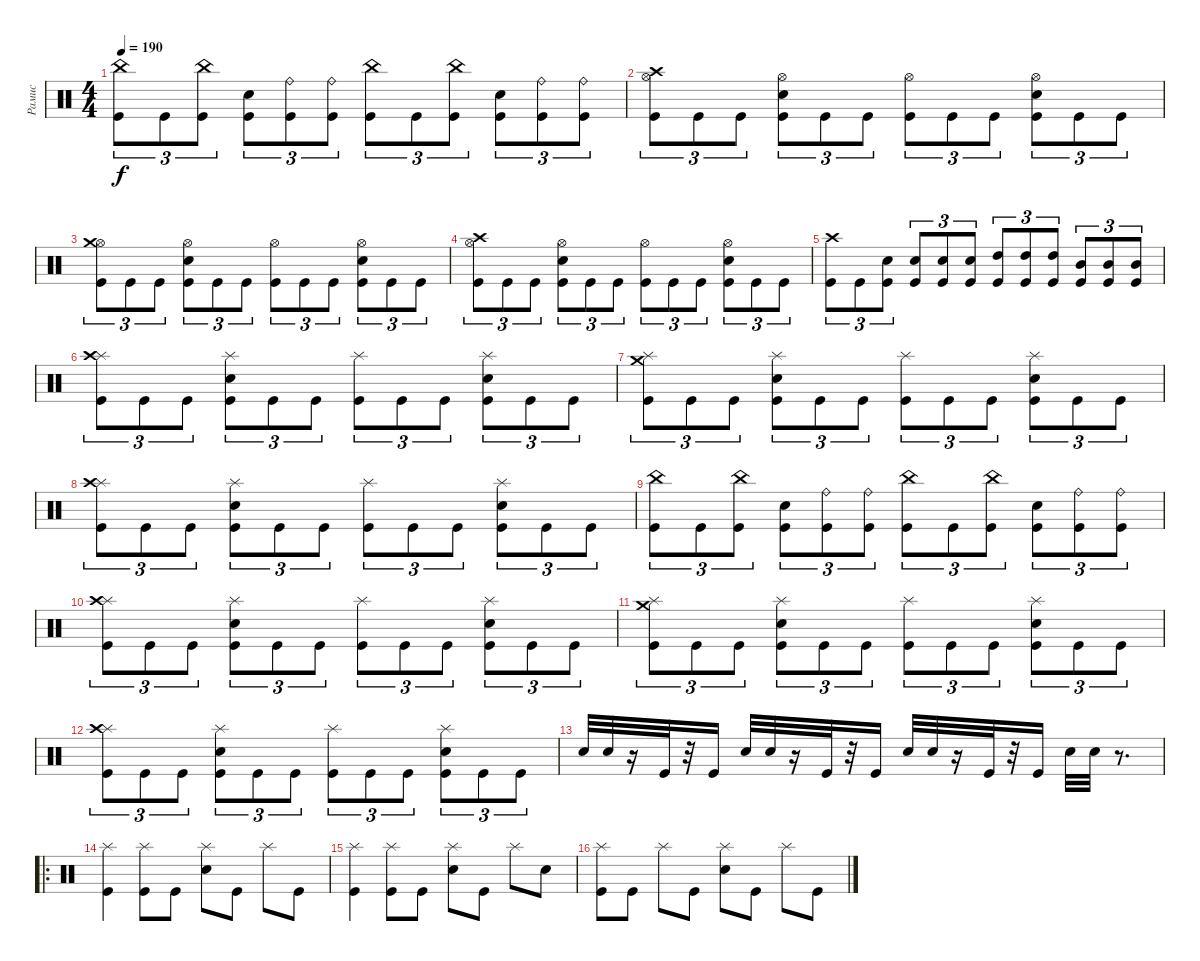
\track ("Рамис" "Рамис") {instrument percussion}
\staff {score}
\articulation defaults
\ts (4 4)
\tempo 190
\clef neutral
\ks c
("China (hit)" "Kick (hit)").8{tu (3 2) dy f} "Kick (hit)".8{tu (3 2)} ("China (hit)" "Kick (hit)").8{tu (3 2)} ("Electric Snare (hit)" "Kick (hit)").8{tu (3 2)} ("Ride (bell)" "Kick (hit)").8{tu (3 2)} ("Ride (bell)" "Kick (hit)").8{tu (3 2)} ("China (hit)" "Kick (hit)").8{tu (3 2)} "Kick (hit)".8{tu (3 2)} ("China (hit)" "Kick (hit)").8{tu (3 2)} ("Electric Snare (hit)" "Kick (hit)").8{tu (3 2)} ("Ride (bell)" "Kick (hit)").8{tu (3 2)} ("Ride (bell)" "Kick (hit)").8{tu (3 2)} |
("Hi-Hat (open)" "Crash high (hit)" "Kick (hit)").8{tu (3 2)} "Kick (hit)".8{tu (3 2)} "Kick (hit)".8{tu (3 2)} ("Hi-Hat (open)" "Electric Snare (hit)" "Kick (hit)").8{tu (3 2)} "Kick (hit)".8{tu (3 2)} "Kick (hit)".8{tu (3 2)} ("Hi-Hat (open)" "Kick (hit)").8{tu (3 2)} "Kick (hit)".8{tu (3 2)} "Kick (hit)".8{tu (3 2)} ("Hi-Hat (open)" "Electric Snare (hit)" "Kick (hit)").8{tu (3 2)} "Kick (hit)".8{tu (3 2)} "Kick (hit)".8{tu (3 2)} |
("Hi-Hat (open)" "Crash medium (hit)" "Kick (hit)").8{tu (3 2)} "Kick (hit)".8{tu (3 2)} "Kick (hit)".8{tu (3 2)} ("Hi-Hat (open)" "Electric Snare (hit)" "Kick (hit)").8{tu (3 2)} "Kick (hit)".8{tu (3 2)} "Kick (hit)".8{tu (3 2)} ("Hi-Hat (open)" "Kick (hit)").8{tu (3 2)} "Kick (hit)".8{tu (3 2)} "Kick (hit)".8{tu (3 2)} ("Hi-Hat (open)" "Electric Snare (hit)" "Kick (hit)").8{tu (3 2)} "Kick (hit)".8{tu (3 2)} "Kick (hit)".8{tu (3 2)} |
("Hi-Hat (open)" "Crash high (hit)" "Kick (hit)").8{tu (3 2)} "Kick (hit)".8{tu (3 2)} "Kick (hit)".8{tu (3 2)} ("Hi-Hat (open)" "Electric Snare (hit)" "Kick (hit)").8{tu (3 2)} "Kick (hit)".8{tu (3 2)} "Kick (hit)".8{tu (3 2)} ("Hi-Hat (open)" "Kick (hit)").8{tu (3 2)} "Kick (hit)".8{tu (3 2)} "Kick (hit)".8{tu (3 2)} ("Hi-Hat (open)" "Electric Snare (hit)" "Kick (hit)").8{tu (3 2)} "Kick (hit)".8{tu (3 2)} "Kick (hit)".8{tu (3 2)} |
("Crash high (hit)" "Kick (hit)").8{tu (3 2)} "Kick (hit)".8{tu (3 2)} ("Electric Snare (hit)" "Kick (hit)").8{tu (3 2)} ("Electric Snare (hit)" "Kick (hit)").8{tu (3 2)} ("Electric Snare (hit)" "Kick (hit)").8{tu (3 2)} ("Electric Snare (hit)" "Kick (hit)").8{tu (3 2)} ("High Tom (hit)" "Kick (hit)").8{tu (3 2)} ("High Tom (hit)" "Kick (hit)").8{tu (3 2)} ("High Tom (hit)" "Kick (hit)").8{tu (3 2)} ("Mid Tom (hit)" "Kick (hit)").8{tu (3 2)} ("Mid Tom (hit)" "Kick (hit)").8{tu (3 2)} ("Mid Tom (hit)" "Kick (hit)").8{tu (3 2)} |
("Splash (hit)" "Crash high (hit)" "Kick (hit)").8{tu (3 2)} "Kick (hit)".8{tu (3 2)} "Kick (hit)".8{tu (3 2)} ("Splash (hit)" "Electric Snare (hit)" "Kick (hit)").8{tu (3 2)} "Kick (hit)".8{tu (3 2)} "Kick (hit)".8{tu (3 2)} ("Splash (hit)" "Kick (hit)").8{tu (3 2)} "Kick (hit)".8{tu (3 2)} "Kick (hit)".8{tu (3 2)} ("Splash (hit)" "Electric Snare (hit)" "Kick (hit)").8{tu (3 2)} "Kick (hit)".8{tu (3 2)} "Kick (hit)".8{tu (3 2)} |
("Splash (hit)" "Crash medium (hit)" "Kick (hit)").8{tu (3 2)} "Kick (hit)".8{tu (3 2)} "Kick (hit)".8{tu (3 2)} ("Splash (hit)" "Electric Snare (hit)" "Kick (hit)").8{tu (3 2)} "Kick (hit)".8{tu (3 2)} "Kick (hit)".8{tu (3 2)} ("Splash (hit)" "Kick (hit)").8{tu (3 2)} "Kick (hit)".8{tu (3 2)} "Kick (hit)".8{tu (3 2)} ("Splash (hit)" "Electric Snare (hit)" "Kick (hit)").8{tu (3 2)} "Kick (hit)".8{tu (3 2)} "Kick (hit)".8{tu (3 2)} |
("Splash (hit)" "Crash high (hit)" "Kick (hit)").8{tu (3 2)} "Kick (hit)".8{tu (3 2)} "Kick (hit)".8{tu (3 2)} ("Splash (hit)" "Electric Snare (hit)" "Kick (hit)").8{tu (3 2)} "Kick (hit)".8{tu (3 2)} "Kick (hit)".8{tu (3 2)} ("Splash (hit)" "Kick (hit)").8{tu (3 2)} "Kick (hit)".8{tu (3 2)} "Kick (hit)".8{tu (3 2)} ("Splash (hit)" "Electric Snare (hit)" "Kick (hit)").8{tu (3 2)} "Kick (hit)".8{tu (3 2)} "Kick (hit)".8{tu (3 2)} |
("China (hit)" "Kick (hit)").8{tu (3 2)} "Kick (hit)".8{tu (3 2)} ("China (hit)" "Kick (hit)").8{tu (3 2)} ("Electric Snare (hit)" "Kick (hit)").8{tu (3 2)} ("Ride (bell)" "Kick (hit)").8{tu (3 2)} ("Ride (bell)" "Kick (hit)").8{tu (3 2)} ("China (hit)" "Kick (hit)").8{tu (3 2)} "Kick (hit)".8{tu (3 2)} ("China (hit)" "Kick (hit)").8{tu (3 2)} ("Electric Snare (hit)" "Kick (hit)").8{tu (3 2)} ("Ride (bell)" "Kick (hit)").8{tu (3 2)} ("Ride (bell)" "Kick (hit)").8{tu (3 2)} |
("Splash (hit)" "Crash high (hit)" "Kick (hit)").8{tu (3 2)} "Kick (hit)".8{tu (3 2)} "Kick (hit)".8{tu (3 2)} ("Splash (hit)" "Electric Snare (hit)" "Kick (hit)").8{tu (3 2)} "Kick (hit)".8{tu (3 2)} "Kick (hit)".8{tu (3 2)} ("Splash (hit)" "Kick (hit)").8{tu (3 2)} "Kick (hit)".8{tu (3 2)} "Kick (hit)".8{tu (3 2)} ("Splash (hit)" "Electric Snare (hit)" "Kick (hit)").8{tu (3 2)} "Kick (hit)".8{tu (3 2)} "Kick (hit)".8{tu (3 2)} |
("Splash (hit)" "Crash medium (hit)" "Kick (hit)").8{tu (3 2)} "Kick (hit)".8{tu (3 2)} "Kick (hit)".8{tu (3 2)} ("Splash (hit)" "Electric Snare (hit)" "Kick (hit)").8{tu (3 2)} "Kick (hit)".8{tu (3 2)} "Kick (hit)".8{tu (3 2)} ("Splash (hit)" "Kick (hit)").8{tu (3 2)} "Kick (hit)".8{tu (3 2)} "Kick (hit)".8{tu (3 2)} ("Splash (hit)" "Electric Snare (hit)" "Kick (hit)").8{tu (3 2)} "Kick (hit)".8{tu (3 2)} "Kick (hit)".8{tu (3 2)} |
("Splash (hit)" "Crash high (hit)" "Kick (hit)").8{tu (3 2)} "Kick (hit)".8{tu (3 2)} "Kick (hit)".8{tu (3 2)} ("Splash (hit)" "Electric Snare (hit)" "Kick (hit)").8{tu (3 2)} "Kick (hit)".8{tu (3 2)} "Kick (hit)".8{tu (3 2)} ("Splash (hit)" "Kick (hit)").8{tu (3 2)} "Kick (hit)".8{tu (3 2)} "Kick (hit)".8{tu (3 2)} ("Splash (hit)" "Electric Snare (hit)" "Kick (hit)").8{tu (3 2)} "Kick (hit)".8{tu (3 2)} "Kick (hit)".8{tu (3 2)} |
"Electric Snare (hit)".32 "Electric Snare (hit)".32 r.16 "Kick (hit)".32 r.32 "Kick (hit)".16 "Electric Snare (hit)".32 "Electric Snare (hit)".32 r.16 "Kick (hit)".32 r.32 "Kick (hit)".16 "Electric Snare (hit)".32 "Electric Snare (hit)".32 r.16 "Kick (hit)".32 r.32 "Kick (hit)".16 "Electric Snare (hit)".32 "Electric Snare (hit)".32 r.8{d} |
\ro
("Splash (hit)" "Kick (hit)").4 ("Splash (hit)" "Kick (hit)").8 "Kick (hit)".8 ("Splash (hit)" "Electric Snare (hit)").8 "Kick (hit)".8 "Splash (hit)".8 "Kick (hit)".8 |
("Splash (hit)" "Kick (hit)").4 ("Splash (hit)" "Kick (hit)").8 "Kick (hit)".8 ("Splash (hit)" "Electric Snare (hit)").8 "Kick (hit)".8 "Splash (hit)".8 "Electric Snare (hit)".8 |
("Splash (hit)" "Kick (hit)").8 "Kick (hit)".8 "Splash (hit)".8 "Kick (hit)".8 ("Splash (hit)" "Electric Snare (hit)").8 "Kick (hit)".8 "Splash (hit)".8 "Kick (hit)".8
